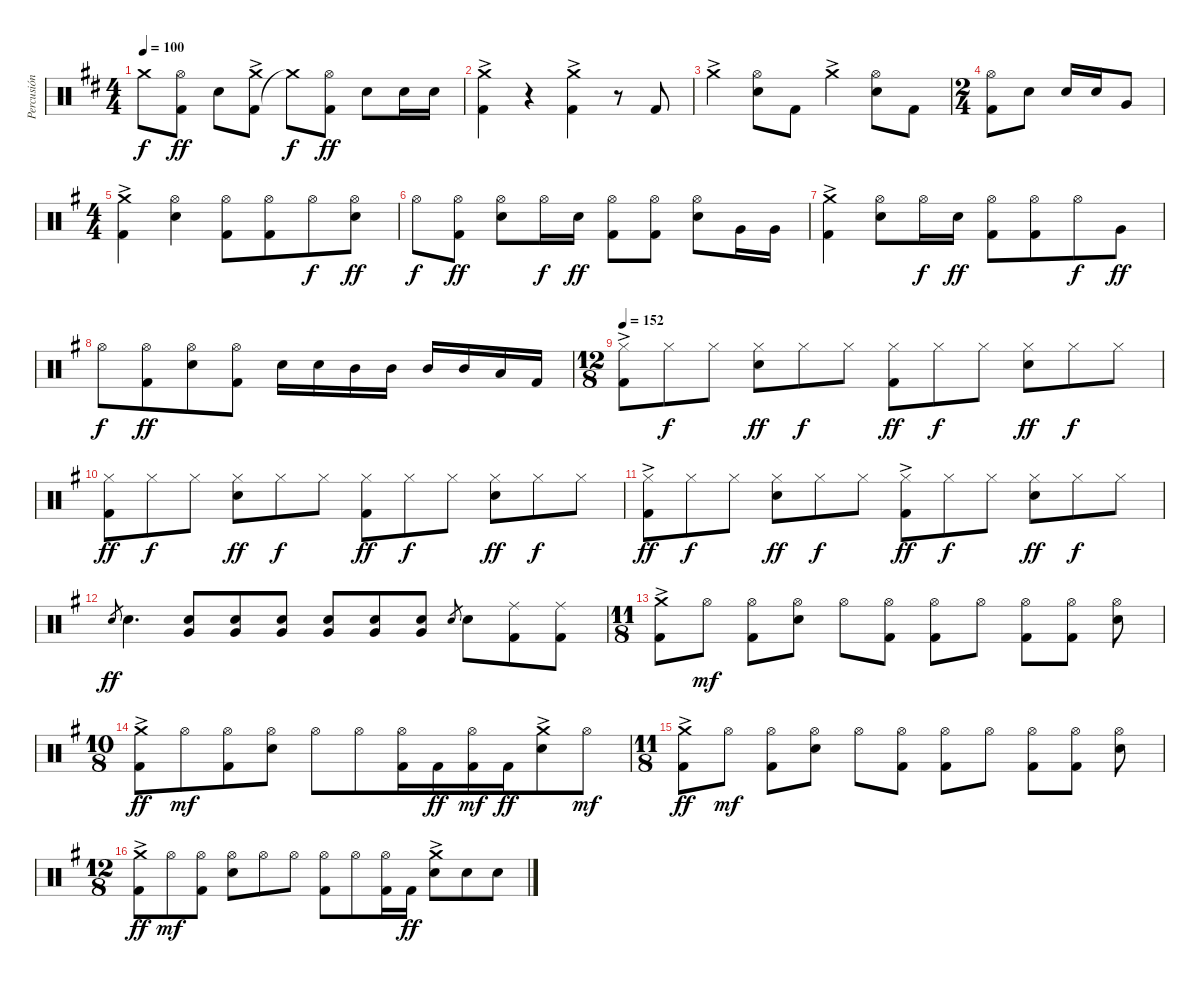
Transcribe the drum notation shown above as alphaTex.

\track ("Percusión" "Percusión") {instrument percussion}
\staff {score}
\articulation defaults
\ts (4 4)
\tempo 100
\clef neutral
\ks d "Crash medium (hit)"{t}.8{dy f}
("Kick (hit) 2" "Hi-Hat (open)").8{dy ff} "Electric Snare (hit)".8 ("Kick (hit) 2" "Crash medium (hit)"{ac}).8 "Crash medium (hit)"{t}.8{dy f} ("Kick (hit) 2" "Hi-Hat (open)").8{dy ff} "Electric Snare (hit)".8 "Electric Snare (hit)".16 "Electric Snare (hit)".16 |
("Kick (hit) 2" "Crash medium (hit)"{ac}).4 r.4 ("Kick (hit) 2" "Crash medium (hit)"{ac}).4 r.8 "Kick (hit) 2".8 |
"Crash medium (hit)"{ac}.4 ("Electric Snare (hit)" "Hi-Hat (open)").8 "Kick (hit) 2".8 "Crash medium (hit)"{ac}.4 ("Electric Snare (hit)" "Hi-Hat (open)").8 "Kick (hit) 2".8 |
\ts (2 4)
("Kick (hit) 2" "Hi-Hat (open)").8 "Electric Snare (hit)".8 "Electric Snare (hit)".16 "Electric Snare (hit)".16 "Very Low Tom (hit)".8 |
\ts (4 4)
\ks g
("Kick (hit) 2" "Crash medium (hit)"{ac}).4 ("Electric Snare (hit)" "Hi-Hat (open)").4 ("Kick (hit) 2" "Hi-Hat (open)").8 ("Kick (hit) 2" "Hi-Hat (open)").8{beam merge} "Hi-Hat (open)".8{dy f} ("Electric Snare (hit)" "Hi-Hat (open)").8{dy ff} |
"Hi-Hat (open)".8{dy f} ("Kick (hit) 2" "Hi-Hat (open)").8{dy ff} ("Electric Snare (hit)" "Hi-Hat (open)").8 "Hi-Hat (open)".16{dy f} "Electric Snare (hit)".16{dy ff} ("Kick (hit) 2" "Hi-Hat (open)").8 ("Kick (hit) 2" "Hi-Hat (open)").8 ("Electric Snare (hit)" "Hi-Hat (open)").8 "Very Low Tom (hit)".16 "Very Low Tom (hit)".16 |
("Kick (hit) 2" "Crash medium (hit)"{ac}).4 ("Electric Snare (hit)" "Hi-Hat (open)").8 "Hi-Hat (open)".16{dy f} "Electric Snare (hit)".16{dy ff} ("Kick (hit) 2" "Hi-Hat (open)").8 ("Kick (hit) 2" "Hi-Hat (open)").8{beam merge} "Hi-Hat (open)".8{dy f} "Very Low Tom (hit)".8{dy ff} |
"Hi-Hat (open)".8{dy f} ("Kick (hit) 2" "Hi-Hat (open)").8{dy ff beam merge} ("Electric Snare (hit)" "Hi-Hat (open)").8 ("Kick (hit) 2" "Hi-Hat (open)").8 "Electric Snare (hit)".16 "Electric Snare (hit)".16 "Mid Tom (hit)".16 "Mid Tom (hit)".16 "Mid Tom (hit)".16 "Mid Tom (hit)".16 "Low Tom (hit)".16 "Kick (hit) 2".16 |
\ts (12 8)
\tempo 152
("Kick (hit) 2" "Hi-Hat (closed)"{ac}).8 "Hi-Hat (closed)".8{dy f} "Hi-Hat (closed)".8 ("Electric Snare (hit)" "Hi-Hat (closed)").8{dy ff} "Hi-Hat (closed)".8{dy f} "Hi-Hat (closed)".8 ("Kick (hit) 2" "Hi-Hat (closed)").8{dy ff} "Hi-Hat (closed)".8{dy f} "Hi-Hat (closed)".8 ("Electric Snare (hit)" "Hi-Hat (closed)").8{dy ff} "Hi-Hat (closed)".8{dy f} "Hi-Hat (closed)".8 |
("Kick (hit) 2" "Hi-Hat (closed)").8{dy ff} "Hi-Hat (closed)".8{dy f} "Hi-Hat (closed)".8 ("Electric Snare (hit)" "Hi-Hat (closed)").8{dy ff} "Hi-Hat (closed)".8{dy f} "Hi-Hat (closed)".8 ("Kick (hit) 2" "Hi-Hat (closed)").8{dy ff} "Hi-Hat (closed)".8{dy f} "Hi-Hat (closed)".8 ("Electric Snare (hit)" "Hi-Hat (closed)").8{dy ff} "Hi-Hat (closed)".8{dy f} "Hi-Hat (closed)".8 |
("Kick (hit) 2" "Hi-Hat (closed)"{ac}).8{dy ff} "Hi-Hat (closed)".8{dy f} "Hi-Hat (closed)".8 ("Electric Snare (hit)" "Hi-Hat (closed)").8{dy ff} "Hi-Hat (closed)".8{dy f} "Hi-Hat (closed)".8 ("Kick (hit) 2" "Hi-Hat (closed)"{ac}).8{dy ff} "Hi-Hat (closed)".8{dy f} "Hi-Hat (closed)".8 ("Electric Snare (hit)" "Hi-Hat (closed)").8{dy ff} "Hi-Hat (closed)".8{dy f} "Hi-Hat (closed)".8 |
"Electric Snare (hit)".8{gr dy ff} "Electric Snare (hit)".4{d} ("Electric Snare (hit)" "Very Low Tom (hit)").8 ("Electric Snare (hit)" "Very Low Tom (hit)").8 ("Electric Snare (hit)" "Very Low Tom (hit)").8 ("Electric Snare (hit)" "Very Low Tom (hit)").8 ("Electric Snare (hit)" "Very Low Tom (hit)").8 ("Electric Snare (hit)" "Very Low Tom (hit)").8 "Electric Snare (hit)".8{gr} "Electric Snare (hit)".8 ("Kick (hit) 2" "Ride (middle)").8 ("Kick (hit) 2" "Ride (middle)").8 |
\ts (11 8)
("Kick (hit) 2" "Crash medium (hit)"{ac}).8 "Hi-Hat (open)".8{dy mf} ("Kick (hit) 2" "Hi-Hat (open)").8 ("Electric Snare (hit)" "Hi-Hat (open)").8 "Hi-Hat (open)".8 ("Kick (hit) 2" "Hi-Hat (open)").8 ("Kick (hit) 2" "Hi-Hat (open)").8 "Hi-Hat (open)".8 ("Kick (hit) 2" "Hi-Hat (open)").8 ("Kick (hit) 2" "Hi-Hat (open)").8 ("Electric Snare (hit)" "Hi-Hat (open)").8 |
\ts (10 8)
("Kick (hit) 2" "Crash medium (hit)"{ac}).8{dy ff} "Hi-Hat (open)".8{dy mf} ("Kick (hit) 2" "Hi-Hat (open)").8 ("Electric Snare (hit)" "Hi-Hat (open)").8 "Hi-Hat (open)".8 "Hi-Hat (open)".8 ("Kick (hit) 2" "Hi-Hat (open)").16 "Kick (hit) 2".16{dy ff beam merge} ("Kick (hit) 2" "Hi-Hat (open)").16{dy mf} "Kick (hit) 2".16{dy ff} ("Electric Snare (hit)" "Crash medium (hit)"{ac}).8{beam merge} "Hi-Hat (open)".8{dy mf} |
\ts (11 8)
("Kick (hit) 2" "Crash medium (hit)"{ac}).8{dy ff} "Hi-Hat (open)".8{dy mf} ("Kick (hit) 2" "Hi-Hat (open)").8 ("Electric Snare (hit)" "Hi-Hat (open)").8 "Hi-Hat (open)".8 ("Kick (hit) 2" "Hi-Hat (open)").8 ("Kick (hit) 2" "Hi-Hat (open)").8 "Hi-Hat (open)".8 ("Kick (hit) 2" "Hi-Hat (open)").8 ("Kick (hit) 2" "Hi-Hat (open)").8 ("Electric Snare (hit)" "Hi-Hat (open)").8 |
\ts (12 8)
("Kick (hit) 2" "Crash medium (hit)"{ac}).8{dy ff} "Hi-Hat (open)".8{dy mf} ("Kick (hit) 2" "Hi-Hat (open)").8 ("Electric Snare (hit)" "Hi-Hat (open)").8 "Hi-Hat (open)".8 "Hi-Hat (open)".8 ("Kick (hit) 2" "Hi-Hat (open)").8 "Hi-Hat (open)".8 ("Kick (hit) 2" "Hi-Hat (open)").16 "Kick (hit) 2".16{dy ff} ("Electric Snare (hit)" "Crash medium (hit)"{ac}).8 "Electric Snare (hit)".8 "Electric Snare (hit)".8
